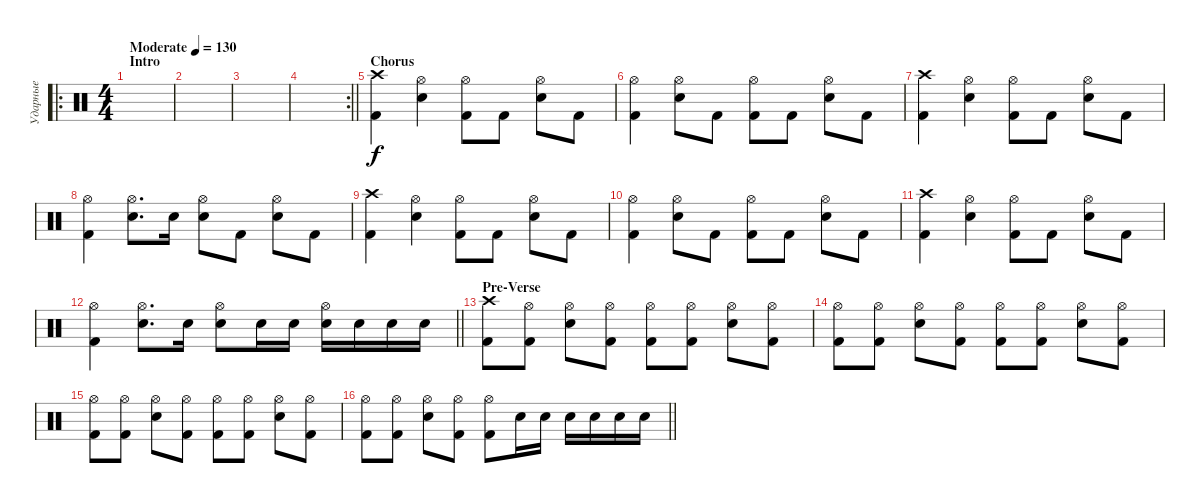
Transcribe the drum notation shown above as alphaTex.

\track ("Ударные" "Ударные") {instrument percussion}
\staff {score}
\articulation defaults
\ro
\ts (4 4)
\section ("" "Intro")
\tempo (130 "Moderate")
\clef neutral
\ks c
|
|
|
\rc 2
\barLineRight lightlight
|
\section ("" "Chorus")
("Crash high (hit)" "Kick (hit) 2").4 ("Hi-Hat (open)" "Snare (hit) 2").4 ("Hi-Hat (open)" "Kick (hit) 2").8 "Kick (hit) 2".8 ("Hi-Hat (open)" "Snare (hit) 2").8 "Kick (hit) 2".8 |
("Hi-Hat (open)" "Kick (hit) 2").4 ("Hi-Hat (open)" "Snare (hit) 2").8 "Kick (hit) 2".8 ("Hi-Hat (open)" "Kick (hit) 2").8 "Kick (hit) 2".8 ("Hi-Hat (open)" "Snare (hit) 2").8 "Kick (hit) 2".8 |
("Crash high (hit)" "Kick (hit) 2").4 ("Hi-Hat (open)" "Snare (hit) 2").4 ("Hi-Hat (open)" "Kick (hit) 2").8 "Kick (hit) 2".8 ("Hi-Hat (open)" "Snare (hit) 2").8 "Kick (hit) 2".8 |
("Hi-Hat (open)" "Kick (hit) 2").4 ("Hi-Hat (open)" "Snare (hit) 2").8{d} "Snare (hit) 2".16 ("Hi-Hat (open)" "Snare (hit) 2").8 "Kick (hit) 2".8 ("Hi-Hat (open)" "Snare (hit) 2").8 "Kick (hit) 2".8 |
("Crash high (hit)" "Kick (hit) 2").4 ("Hi-Hat (open)" "Snare (hit) 2").4 ("Hi-Hat (open)" "Kick (hit) 2").8 "Kick (hit) 2".8 ("Hi-Hat (open)" "Snare (hit) 2").8 "Kick (hit) 2".8 |
("Hi-Hat (open)" "Kick (hit) 2").4 ("Hi-Hat (open)" "Snare (hit) 2").8 "Kick (hit) 2".8 ("Hi-Hat (open)" "Kick (hit) 2").8 "Kick (hit) 2".8 ("Hi-Hat (open)" "Snare (hit) 2").8 "Kick (hit) 2".8 |
("Crash high (hit)" "Kick (hit) 2").4 ("Hi-Hat (open)" "Snare (hit) 2").4 ("Hi-Hat (open)" "Kick (hit) 2").8 "Kick (hit) 2".8 ("Hi-Hat (open)" "Snare (hit) 2").8 "Kick (hit) 2".8 |
\barLineRight lightlight
("Hi-Hat (open)" "Kick (hit) 2").4 ("Hi-Hat (open)" "Snare (hit) 2").8{d} "Snare (hit) 2".16 ("Hi-Hat (open)" "Snare (hit) 2").8 "Snare (hit) 2".16 "Snare (hit) 2".16 ("Hi-Hat (open)" "Snare (hit) 2").16 "Snare (hit) 2".16 "Snare (hit) 2".16 "Snare (hit) 2".16 |
\section ("" "Pre-Verse")
("Crash high (hit)" "Kick (hit) 2").8 ("Hi-Hat (open)" "Kick (hit) 2").8 ("Hi-Hat (open)" "Snare (hit) 2").8 ("Hi-Hat (open)" "Kick (hit) 2").8 ("Hi-Hat (open)" "Kick (hit) 2").8 ("Hi-Hat (open)" "Kick (hit) 2").8 ("Hi-Hat (open)" "Snare (hit) 2").8 ("Hi-Hat (open)" "Kick (hit) 2").8 |
("Hi-Hat (open)" "Kick (hit) 2").8 ("Hi-Hat (open)" "Kick (hit) 2").8 ("Hi-Hat (open)" "Snare (hit) 2").8 ("Hi-Hat (open)" "Kick (hit) 2").8 ("Hi-Hat (open)" "Kick (hit) 2").8 ("Hi-Hat (open)" "Kick (hit) 2").8 ("Hi-Hat (open)" "Snare (hit) 2").8 ("Hi-Hat (open)" "Kick (hit) 2").8 |
("Hi-Hat (open)" "Kick (hit) 2").8 ("Hi-Hat (open)" "Kick (hit) 2").8 ("Hi-Hat (open)" "Snare (hit) 2").8 ("Hi-Hat (open)" "Kick (hit) 2").8 ("Hi-Hat (open)" "Kick (hit) 2").8 ("Hi-Hat (open)" "Kick (hit) 2").8 ("Hi-Hat (open)" "Snare (hit) 2").8 ("Hi-Hat (open)" "Kick (hit) 2").8 |
\barLineRight lightlight
("Hi-Hat (open)" "Kick (hit) 2").8 ("Hi-Hat (open)" "Kick (hit) 2").8 ("Hi-Hat (open)" "Snare (hit) 2").8 ("Hi-Hat (open)" "Kick (hit) 2").8 ("Hi-Hat (open)" "Kick (hit) 2").8 "Snare (hit) 2".16 "Snare (hit) 2".16 "Snare (hit) 2".16 "Snare (hit) 2".16 "Snare (hit) 2".16 "Snare (hit) 2".16
